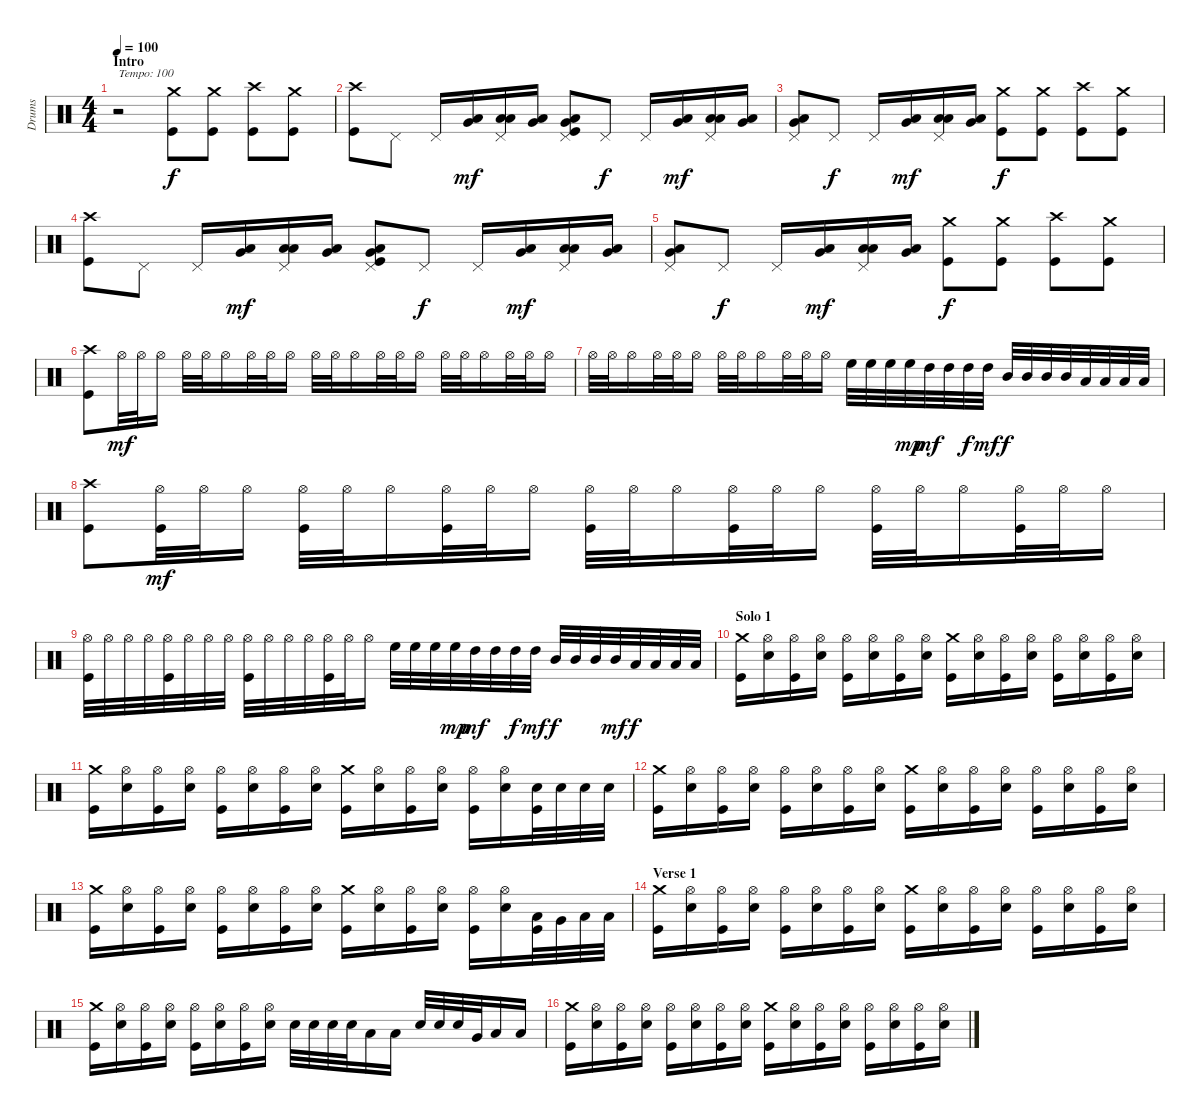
\track ("Drums" "Drums") {instrument percussion}
\staff {score}
\articulation defaults
\ts (4 4)
\section ("" "Intro")
\tempo 100
\clef neutral
\ks c
r.2{txt "Tempo: 100" dy f} ("Crash medium (hit)" "Kick (hit)").8 ("Crash medium (hit)" "Kick (hit)").8 ("Crash high (hit)" "Kick (hit)").8 ("Crash medium (hit)" "Kick (hit)").8 |
("Crash high (hit)" "Kick (hit)").8 "Pedal Hi-Hat (hit)".8 "Pedal Hi-Hat (hit)".16 ("Very Low Tom (hit)" "Low Floor Tom (hit)").16{dy mf} ("Pedal Hi-Hat (hit)" "Low Tom (hit)" "Low Floor Tom (hit)").16 ("Very Low Tom (hit)" "Low Floor Tom (hit)").16 ("Pedal Hi-Hat (hit)" "Very Low Tom (hit)" "Low Floor Tom (hit)" "Kick (hit)").8 "Pedal Hi-Hat (hit)".8{dy f} "Pedal Hi-Hat (hit)".16 ("Very Low Tom (hit)" "Low Floor Tom (hit)").16{dy mf} ("Pedal Hi-Hat (hit)" "Low Tom (hit)" "Low Floor Tom (hit)").16 ("Very Low Tom (hit)" "Low Floor Tom (hit)").16 |
("Pedal Hi-Hat (hit)" "Very Low Tom (hit)" "Low Floor Tom (hit)").8 "Pedal Hi-Hat (hit)".8{dy f} "Pedal Hi-Hat (hit)".16 ("Very Low Tom (hit)" "Low Floor Tom (hit)").16{dy mf} ("Pedal Hi-Hat (hit)" "Low Tom (hit)" "Low Floor Tom (hit)").16 ("Very Low Tom (hit)" "Low Floor Tom (hit)").16 ("Crash medium (hit)" "Kick (hit)").8{dy f} ("Crash medium (hit)" "Kick (hit)").8 ("Crash high (hit)" "Kick (hit)").8 ("Crash medium (hit)" "Kick (hit)").8 |
("Crash high (hit)" "Kick (hit)").8 "Pedal Hi-Hat (hit)".8 "Pedal Hi-Hat (hit)".16 ("Very Low Tom (hit)" "Low Floor Tom (hit)").16{dy mf} ("Pedal Hi-Hat (hit)" "Low Tom (hit)" "Low Floor Tom (hit)").16 ("Very Low Tom (hit)" "Low Floor Tom (hit)").16 ("Pedal Hi-Hat (hit)" "Very Low Tom (hit)" "Low Floor Tom (hit)" "Kick (hit)").8 "Pedal Hi-Hat (hit)".8{dy f} "Pedal Hi-Hat (hit)".16 ("Very Low Tom (hit)" "Low Floor Tom (hit)").16{dy mf} ("Pedal Hi-Hat (hit)" "Low Tom (hit)" "Low Floor Tom (hit)").16 ("Very Low Tom (hit)" "Low Floor Tom (hit)").16 |
("Pedal Hi-Hat (hit)" "Very Low Tom (hit)" "Low Floor Tom (hit)").8 "Pedal Hi-Hat (hit)".8{dy f} "Pedal Hi-Hat (hit)".16 ("Very Low Tom (hit)" "Low Floor Tom (hit)").16{dy mf} ("Pedal Hi-Hat (hit)" "Low Tom (hit)" "Low Floor Tom (hit)").16 ("Very Low Tom (hit)" "Low Floor Tom (hit)").16 ("Crash medium (hit)" "Kick (hit)").8{dy f} ("Crash medium (hit)" "Kick (hit)").8 ("Crash high (hit)" "Kick (hit)").8 ("Crash medium (hit)" "Kick (hit)").8 |
("Crash high (hit)" "Kick (hit)").8 "Hi-Hat (open)".32{dy mf} "Hi-Hat (open)".32 "Hi-Hat (open)".16 "Hi-Hat (open)".32 "Hi-Hat (open)".32 "Hi-Hat (open)".16 "Hi-Hat (open)".32 "Hi-Hat (open)".32 "Hi-Hat (open)".16 "Hi-Hat (open)".32 "Hi-Hat (open)".32 "Hi-Hat (open)".16 "Hi-Hat (open)".32 "Hi-Hat (open)".32 "Hi-Hat (open)".16 "Hi-Hat (open)".32 "Hi-Hat (open)".32 "Hi-Hat (open)".16 "Hi-Hat (open)".32 "Hi-Hat (open)".32 "Hi-Hat (open)".16 |
"Hi-Hat (open)".32 "Hi-Hat (open)".32 "Hi-Hat (open)".16 "Hi-Hat (open)".32 "Hi-Hat (open)".32 "Hi-Hat (open)".16 "Hi-Hat (open)".32 "Hi-Hat (open)".32 "Hi-Hat (open)".16 "Hi-Hat (open)".32 "Hi-Hat (open)".32 "Hi-Hat (open)".16 "High Floor Tom (hit)".32 "High Floor Tom (hit)".32 "High Floor Tom (hit)".32 "High Floor Tom (hit)".32{dy mp} "High Tom (hit)".32{dy mf} "High Tom (hit)".32 "High Tom (hit)".32{dy f} "High Tom (hit)".32{dy mf} "Mid Tom (hit)".32{dy f} "Mid Tom (hit)".32 "Mid Tom (hit)".32 "Mid Tom (hit)".32 "Low Tom (hit)".32 "Low Tom (hit)".32 "Low Tom (hit)".32 "Low Tom (hit)".32 |
("Crash high (hit)" "Kick (hit)").8 ("Hi-Hat (open)" "Kick (hit)").32{dy mf} "Hi-Hat (open)".32 "Hi-Hat (open)".16 ("Hi-Hat (open)" "Kick (hit)").32 "Hi-Hat (open)".32 "Hi-Hat (open)".16 ("Hi-Hat (open)" "Kick (hit)").32 "Hi-Hat (open)".32 "Hi-Hat (open)".16 ("Hi-Hat (open)" "Kick (hit)").32 "Hi-Hat (open)".32 "Hi-Hat (open)".16 ("Hi-Hat (open)" "Kick (hit)").32 "Hi-Hat (open)".32 "Hi-Hat (open)".16 ("Hi-Hat (open)" "Kick (hit)").32 "Hi-Hat (open)".32 "Hi-Hat (open)".16 ("Hi-Hat (open)" "Kick (hit)").32 "Hi-Hat (open)".32 "Hi-Hat (open)".16 |
("Hi-Hat (open)" "Kick (hit)").32 "Hi-Hat (open)".32 "Hi-Hat (open)".32 "Hi-Hat (open)".32 ("Hi-Hat (open)" "Kick (hit)").32 "Hi-Hat (open)".32 "Hi-Hat (open)".32 "Hi-Hat (open)".32 ("Hi-Hat (open)" "Kick (hit)").32 "Hi-Hat (open)".32 "Hi-Hat (open)".32 "Hi-Hat (open)".32 ("Hi-Hat (open)" "Kick (hit)").32 "Hi-Hat (open)".32 "Hi-Hat (open)".16 "High Floor Tom (hit)".32 "High Floor Tom (hit)".32 "High Floor Tom (hit)".32 "High Floor Tom (hit)".32{dy mp} "High Tom (hit)".32{dy mf} "High Tom (hit)".32 "High Tom (hit)".32{dy f} "High Tom (hit)".32{dy mf} "Mid Tom (hit)".32{dy f} "Mid Tom (hit)".32 "Mid Tom (hit)".32 "Mid Tom (hit)".32{dy mf} "Low Tom (hit)".32{dy f} "Low Tom (hit)".32 "Low Tom (hit)".32 "Low Tom (hit)".32 |
\section ("" "Solo 1")
("Crash medium (hit)" "Kick (hit)").16 ("Hi-Hat (open)" "Electric Snare (hit)").16 ("Hi-Hat (open)" "Kick (hit)").16 ("Hi-Hat (open)" "Electric Snare (hit)").16 ("Hi-Hat (open)" "Kick (hit)").16 ("Hi-Hat (open)" "Electric Snare (hit)").16 ("Hi-Hat (open)" "Kick (hit)").16 ("Hi-Hat (open)" "Electric Snare (hit)").16 ("Crash medium (hit)" "Kick (hit)").16 ("Hi-Hat (open)" "Electric Snare (hit)").16 ("Hi-Hat (open)" "Kick (hit)").16 ("Hi-Hat (open)" "Electric Snare (hit)").16 ("Hi-Hat (open)" "Kick (hit)").16 ("Hi-Hat (open)" "Electric Snare (hit)").16 ("Hi-Hat (open)" "Kick (hit)").16 ("Hi-Hat (open)" "Electric Snare (hit)").16 |
("Crash medium (hit)" "Kick (hit)").16 ("Hi-Hat (open)" "Electric Snare (hit)").16 ("Hi-Hat (open)" "Kick (hit)").16 ("Hi-Hat (open)" "Electric Snare (hit)").16 ("Hi-Hat (open)" "Kick (hit)").16 ("Hi-Hat (open)" "Electric Snare (hit)").16 ("Hi-Hat (open)" "Kick (hit)").16 ("Hi-Hat (open)" "Electric Snare (hit)").16 ("Crash medium (hit)" "Kick (hit)").16 ("Hi-Hat (open)" "Electric Snare (hit)").16 ("Hi-Hat (open)" "Kick (hit)").16 ("Hi-Hat (open)" "Electric Snare (hit)").16 ("Hi-Hat (open)" "Kick (hit)").16 ("Hi-Hat (open)" "Electric Snare (hit)").16 ("Electric Snare (hit)" "Kick (hit)").32 "Electric Snare (hit)".32 "Electric Snare (hit)".32 "Electric Snare (hit)".32 |
("Crash medium (hit)" "Kick (hit)").16 ("Hi-Hat (open)" "Electric Snare (hit)").16 ("Hi-Hat (open)" "Kick (hit)").16 ("Hi-Hat (open)" "Electric Snare (hit)").16 ("Hi-Hat (open)" "Kick (hit)").16 ("Hi-Hat (open)" "Electric Snare (hit)").16 ("Hi-Hat (open)" "Kick (hit)").16 ("Hi-Hat (open)" "Electric Snare (hit)").16 ("Crash medium (hit)" "Kick (hit)").16 ("Hi-Hat (open)" "Electric Snare (hit)").16 ("Hi-Hat (open)" "Kick (hit)").16 ("Hi-Hat (open)" "Electric Snare (hit)").16 ("Hi-Hat (open)" "Kick (hit)").16 ("Hi-Hat (open)" "Electric Snare (hit)").16 ("Hi-Hat (open)" "Kick (hit)").16 ("Hi-Hat (open)" "Electric Snare (hit)").16 |
("Crash medium (hit)" "Kick (hit)").16 ("Hi-Hat (open)" "Electric Snare (hit)").16 ("Hi-Hat (open)" "Kick (hit)").16 ("Hi-Hat (open)" "Electric Snare (hit)").16 ("Hi-Hat (open)" "Kick (hit)").16 ("Hi-Hat (open)" "Electric Snare (hit)").16 ("Hi-Hat (open)" "Kick (hit)").16 ("Hi-Hat (open)" "Electric Snare (hit)").16 ("Crash medium (hit)" "Kick (hit)").16 ("Hi-Hat (open)" "Electric Snare (hit)").16 ("Hi-Hat (open)" "Kick (hit)").16 ("Hi-Hat (open)" "Electric Snare (hit)").16 ("Hi-Hat (open)" "Kick (hit)").16 ("Hi-Hat (open)" "Electric Snare (hit)").16 ("Low Tom (hit)" "Kick (hit)").32 "Very Low Tom (hit)".32 "Low Floor Tom (hit)".32 "Low Floor Tom (hit)".32 |
\section ("" "Verse 1")
("Crash medium (hit)" "Kick (hit)").16 ("Hi-Hat (open)" "Electric Snare (hit)").16 ("Hi-Hat (open)" "Kick (hit)").16 ("Hi-Hat (open)" "Electric Snare (hit)").16 ("Hi-Hat (open)" "Kick (hit)").16 ("Hi-Hat (open)" "Electric Snare (hit)").16 ("Hi-Hat (open)" "Kick (hit)").16 ("Hi-Hat (open)" "Electric Snare (hit)").16 ("Crash medium (hit)" "Kick (hit)").16 ("Hi-Hat (open)" "Electric Snare (hit)").16 ("Hi-Hat (open)" "Kick (hit)").16 ("Hi-Hat (open)" "Electric Snare (hit)").16 ("Hi-Hat (open)" "Kick (hit)").16 ("Hi-Hat (open)" "Electric Snare (hit)").16 ("Hi-Hat (open)" "Kick (hit)").16 ("Hi-Hat (open)" "Electric Snare (hit)").16 |
("Crash medium (hit)" "Kick (hit)").16 ("Hi-Hat (open)" "Electric Snare (hit)").16 ("Hi-Hat (open)" "Kick (hit)").16 ("Hi-Hat (open)" "Electric Snare (hit)").16 ("Hi-Hat (open)" "Kick (hit)").16 ("Hi-Hat (open)" "Electric Snare (hit)").16 ("Hi-Hat (open)" "Kick (hit)").16 ("Hi-Hat (open)" "Electric Snare (hit)").16 "Electric Snare (hit)".32 "Electric Snare (hit)".32 "Electric Snare (hit)".32 "Electric Snare (hit)".32 "Low Floor Tom (hit)".16 "Low Floor Tom (hit)".16 "Electric Snare (hit)".32 "Electric Snare (hit)".32 "Electric Snare (hit)".32 "Very Low Tom (hit)".32 "Low Floor Tom (hit)".16 "Low Floor Tom (hit)".16 |
("Crash medium (hit)" "Kick (hit)").16 ("Hi-Hat (open)" "Electric Snare (hit)").16 ("Hi-Hat (open)" "Kick (hit)").16 ("Hi-Hat (open)" "Electric Snare (hit)").16 ("Hi-Hat (open)" "Kick (hit)").16 ("Hi-Hat (open)" "Electric Snare (hit)").16 ("Hi-Hat (open)" "Kick (hit)").16 ("Hi-Hat (open)" "Electric Snare (hit)").16 ("Crash medium (hit)" "Kick (hit)").16 ("Hi-Hat (open)" "Electric Snare (hit)").16 ("Hi-Hat (open)" "Kick (hit)").16 ("Hi-Hat (open)" "Electric Snare (hit)").16 ("Hi-Hat (open)" "Kick (hit)").16 ("Hi-Hat (open)" "Electric Snare (hit)").16 ("Hi-Hat (open)" "Kick (hit)").16 ("Hi-Hat (open)" "Electric Snare (hit)").16
